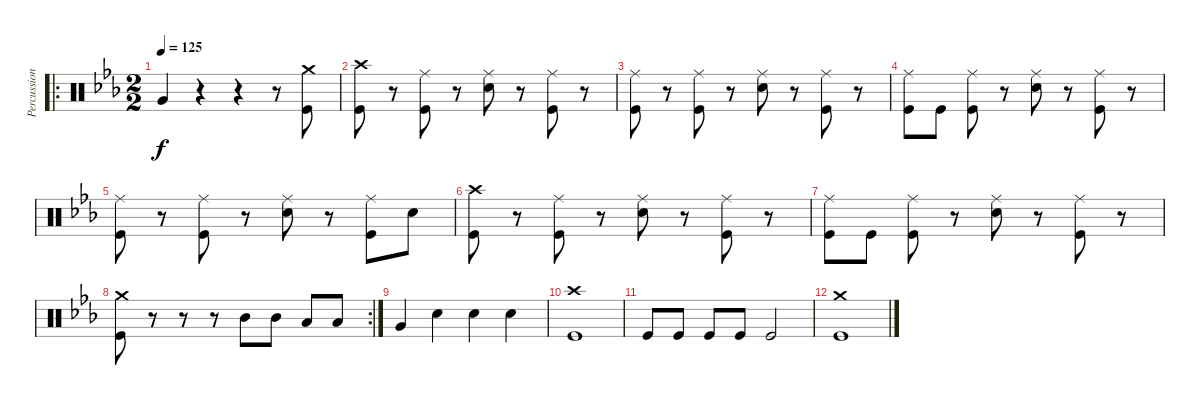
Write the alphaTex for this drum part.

\track ("Percussion" "Percussion") {instrument percussion}
\staff {score}
\articulation defaults
\ro
\ts (2 2)
\tempo 125
\clef neutral
\ks cminor "Very Low Tom (hit)".4{dy f}
r.4 r.4 r.8 ("Crash medium (hit)" "Kick (hit)").8 |
("Crash high (hit)" "Kick (hit)").8 r.8 ("Ride (middle)" "Kick (hit)").8 r.8 ("Ride (middle)" "Snare (hit) 2").8 r.8 ("Ride (middle)" "Kick (hit)").8 r.8 |
("Ride (middle)" "Kick (hit)").8 r.8 ("Ride (middle)" "Kick (hit)").8 r.8 ("Ride (middle)" "Snare (hit) 2").8 r.8 ("Ride (middle)" "Kick (hit)").8 r.8 |
("Ride (middle)" "Kick (hit)").8 "Kick (hit)".8 ("Ride (middle)" "Kick (hit)").8 r.8 ("Ride (middle)" "Snare (hit) 2").8 r.8 ("Ride (middle)" "Kick (hit)").8 r.8 |
("Ride (middle)" "Kick (hit)").8 r.8 ("Ride (middle)" "Kick (hit)").8 r.8 ("Ride (middle)" "Snare (hit) 2").8 r.8 ("Ride (middle)" "Kick (hit)").8 "Snare (hit) 2".8 |
("Crash high (hit)" "Kick (hit)").8 r.8 ("Ride (middle)" "Kick (hit)").8 r.8 ("Ride (middle)" "Snare (hit) 2").8 r.8 ("Ride (middle)" "Kick (hit)").8 r.8 |
("Ride (middle)" "Kick (hit)").8 "Kick (hit)".8 ("Ride (middle)" "Kick (hit)").8 r.8 ("Ride (middle)" "Snare (hit) 2").8 r.8 ("Ride (middle)" "Kick (hit)").8 r.8 |
\rc 2
("Crash medium (hit)" "Kick (hit)").8 r.8 r.8 r.8 "Mid Tom (hit)".8 "Mid Tom (hit)".8 "Low Tom (hit)".8 "Low Tom (hit)".8 |
"Very Low Tom (hit)".4 "Snare (hit) 2".4 "Snare (hit) 2".4 "Snare (hit) 2".4 |
("Crash high (hit)" "Kick (hit)").1 |
"Kick (hit)".8 "Kick (hit)".8 "Kick (hit)".8 "Kick (hit)".8 "Kick (hit)".2 |
("Crash medium (hit)" "Kick (hit)").1
